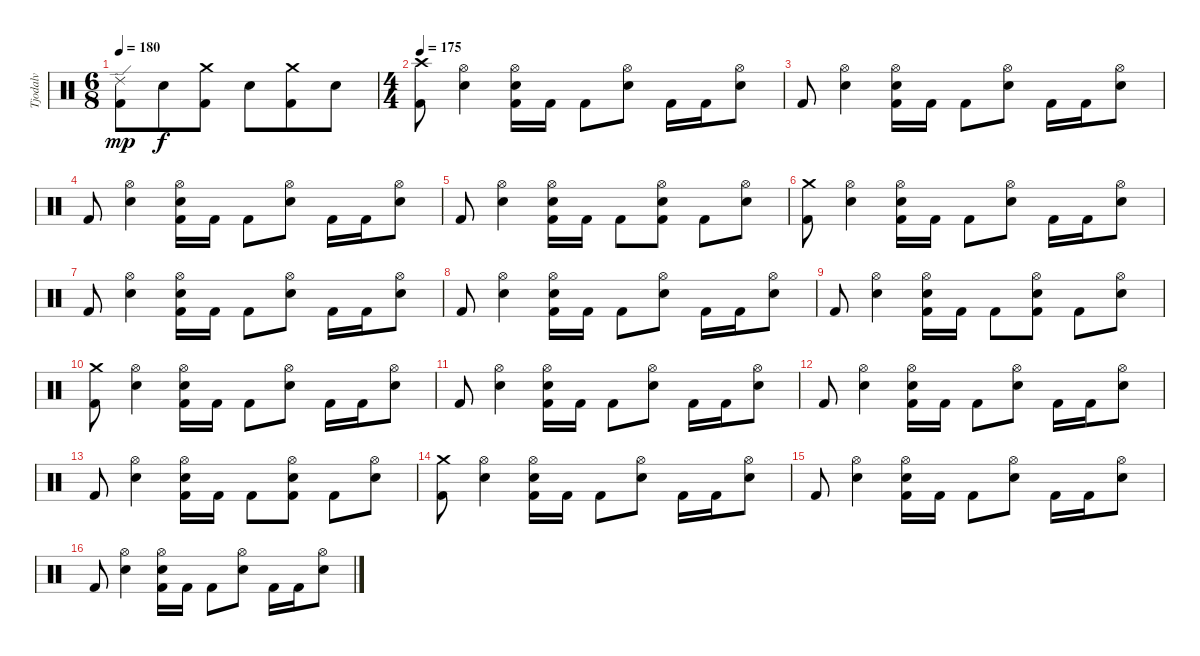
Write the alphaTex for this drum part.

\track ("Tjodalv" "Tjodalv") {instrument percussion}
\staff {score}
\articulation defaults
\ts (6 8)
\tempo 180
\clef neutral
\ks c
("Ride (edge) 2" "Kick (hit) 2").8{dy mp} "Electric Snare (hit)".8{dy f} ("Crash medium (hit)" "Kick (hit) 2").8 "Electric Snare (hit)".8 ("Crash medium (hit)" "Kick (hit) 2").8 "Electric Snare (hit)".8 |
\ts (4 4)
\tempo 175
("Crash high (hit)" "Kick (hit) 2").8 ("Hi-Hat (open)" "Electric Snare (hit)").4 ("Hi-Hat (open)" "Electric Snare (hit)" "Kick (hit) 2").16 "Kick (hit) 2".16 "Kick (hit) 2".8 ("Hi-Hat (open)" "Electric Snare (hit)").8 "Kick (hit) 2".16 "Kick (hit) 2".16 ("Hi-Hat (open)" "Electric Snare (hit)").8 |
"Kick (hit) 2".8 ("Hi-Hat (open)" "Electric Snare (hit)").4 ("Hi-Hat (open)" "Electric Snare (hit)" "Kick (hit) 2").16 "Kick (hit) 2".16 "Kick (hit) 2".8 ("Hi-Hat (open)" "Electric Snare (hit)").8 "Kick (hit) 2".16 "Kick (hit) 2".16 ("Hi-Hat (open)" "Electric Snare (hit)").8 |
"Kick (hit) 2".8 ("Hi-Hat (open)" "Electric Snare (hit)").4 ("Hi-Hat (open)" "Electric Snare (hit)" "Kick (hit) 2").16 "Kick (hit) 2".16 "Kick (hit) 2".8 ("Hi-Hat (open)" "Electric Snare (hit)").8 "Kick (hit) 2".16 "Kick (hit) 2".16 ("Hi-Hat (open)" "Electric Snare (hit)").8 |
"Kick (hit) 2".8 ("Hi-Hat (open)" "Electric Snare (hit)").4 ("Hi-Hat (open)" "Electric Snare (hit)" "Kick (hit) 2").16 "Kick (hit) 2".16 "Kick (hit) 2".8 ("Hi-Hat (open)" "Electric Snare (hit)" "Kick (hit) 2").8 "Kick (hit) 2".8 ("Hi-Hat (open)" "Electric Snare (hit)").8 |
("Crash medium (hit)" "Kick (hit) 2").8 ("Hi-Hat (open)" "Electric Snare (hit)").4 ("Hi-Hat (open)" "Electric Snare (hit)" "Kick (hit) 2").16 "Kick (hit) 2".16 "Kick (hit) 2".8 ("Hi-Hat (open)" "Electric Snare (hit)").8 "Kick (hit) 2".16 "Kick (hit) 2".16 ("Hi-Hat (open)" "Electric Snare (hit)").8 |
"Kick (hit) 2".8 ("Hi-Hat (open)" "Electric Snare (hit)").4 ("Hi-Hat (open)" "Electric Snare (hit)" "Kick (hit) 2").16 "Kick (hit) 2".16 "Kick (hit) 2".8 ("Hi-Hat (open)" "Electric Snare (hit)").8 "Kick (hit) 2".16 "Kick (hit) 2".16 ("Hi-Hat (open)" "Electric Snare (hit)").8 |
"Kick (hit) 2".8 ("Hi-Hat (open)" "Electric Snare (hit)").4 ("Hi-Hat (open)" "Electric Snare (hit)" "Kick (hit) 2").16 "Kick (hit) 2".16 "Kick (hit) 2".8 ("Hi-Hat (open)" "Electric Snare (hit)").8 "Kick (hit) 2".16 "Kick (hit) 2".16 ("Hi-Hat (open)" "Electric Snare (hit)").8 |
"Kick (hit) 2".8 ("Hi-Hat (open)" "Electric Snare (hit)").4 ("Hi-Hat (open)" "Electric Snare (hit)" "Kick (hit) 2").16 "Kick (hit) 2".16 "Kick (hit) 2".8 ("Hi-Hat (open)" "Electric Snare (hit)" "Kick (hit) 2").8 "Kick (hit) 2".8 ("Hi-Hat (open)" "Electric Snare (hit)").8 |
("Crash medium (hit)" "Kick (hit) 2").8 ("Hi-Hat (open)" "Electric Snare (hit)").4 ("Hi-Hat (open)" "Electric Snare (hit)" "Kick (hit) 2").16 "Kick (hit) 2".16 "Kick (hit) 2".8 ("Hi-Hat (open)" "Electric Snare (hit)").8 "Kick (hit) 2".16 "Kick (hit) 2".16 ("Hi-Hat (open)" "Electric Snare (hit)").8 |
"Kick (hit) 2".8 ("Hi-Hat (open)" "Electric Snare (hit)").4 ("Hi-Hat (open)" "Electric Snare (hit)" "Kick (hit) 2").16 "Kick (hit) 2".16 "Kick (hit) 2".8 ("Hi-Hat (open)" "Electric Snare (hit)").8 "Kick (hit) 2".16 "Kick (hit) 2".16 ("Hi-Hat (open)" "Electric Snare (hit)").8 |
"Kick (hit) 2".8 ("Hi-Hat (open)" "Electric Snare (hit)").4 ("Hi-Hat (open)" "Electric Snare (hit)" "Kick (hit) 2").16 "Kick (hit) 2".16 "Kick (hit) 2".8 ("Hi-Hat (open)" "Electric Snare (hit)").8 "Kick (hit) 2".16 "Kick (hit) 2".16 ("Hi-Hat (open)" "Electric Snare (hit)").8 |
"Kick (hit) 2".8 ("Hi-Hat (open)" "Electric Snare (hit)").4 ("Hi-Hat (open)" "Electric Snare (hit)" "Kick (hit) 2").16 "Kick (hit) 2".16 "Kick (hit) 2".8 ("Hi-Hat (open)" "Electric Snare (hit)" "Kick (hit) 2").8 "Kick (hit) 2".8 ("Hi-Hat (open)" "Electric Snare (hit)").8 |
("Crash medium (hit)" "Kick (hit) 2").8 ("Hi-Hat (open)" "Electric Snare (hit)").4 ("Hi-Hat (open)" "Electric Snare (hit)" "Kick (hit) 2").16 "Kick (hit) 2".16 "Kick (hit) 2".8 ("Hi-Hat (open)" "Electric Snare (hit)").8 "Kick (hit) 2".16 "Kick (hit) 2".16 ("Hi-Hat (open)" "Electric Snare (hit)").8 |
"Kick (hit) 2".8 ("Hi-Hat (open)" "Electric Snare (hit)").4 ("Hi-Hat (open)" "Electric Snare (hit)" "Kick (hit) 2").16 "Kick (hit) 2".16 "Kick (hit) 2".8 ("Hi-Hat (open)" "Electric Snare (hit)").8 "Kick (hit) 2".16 "Kick (hit) 2".16 ("Hi-Hat (open)" "Electric Snare (hit)").8 |
"Kick (hit) 2".8 ("Hi-Hat (open)" "Electric Snare (hit)").4 ("Hi-Hat (open)" "Electric Snare (hit)" "Kick (hit) 2").16 "Kick (hit) 2".16 "Kick (hit) 2".8 ("Hi-Hat (open)" "Electric Snare (hit)").8 "Kick (hit) 2".16 "Kick (hit) 2".16 ("Hi-Hat (open)" "Electric Snare (hit)").8
